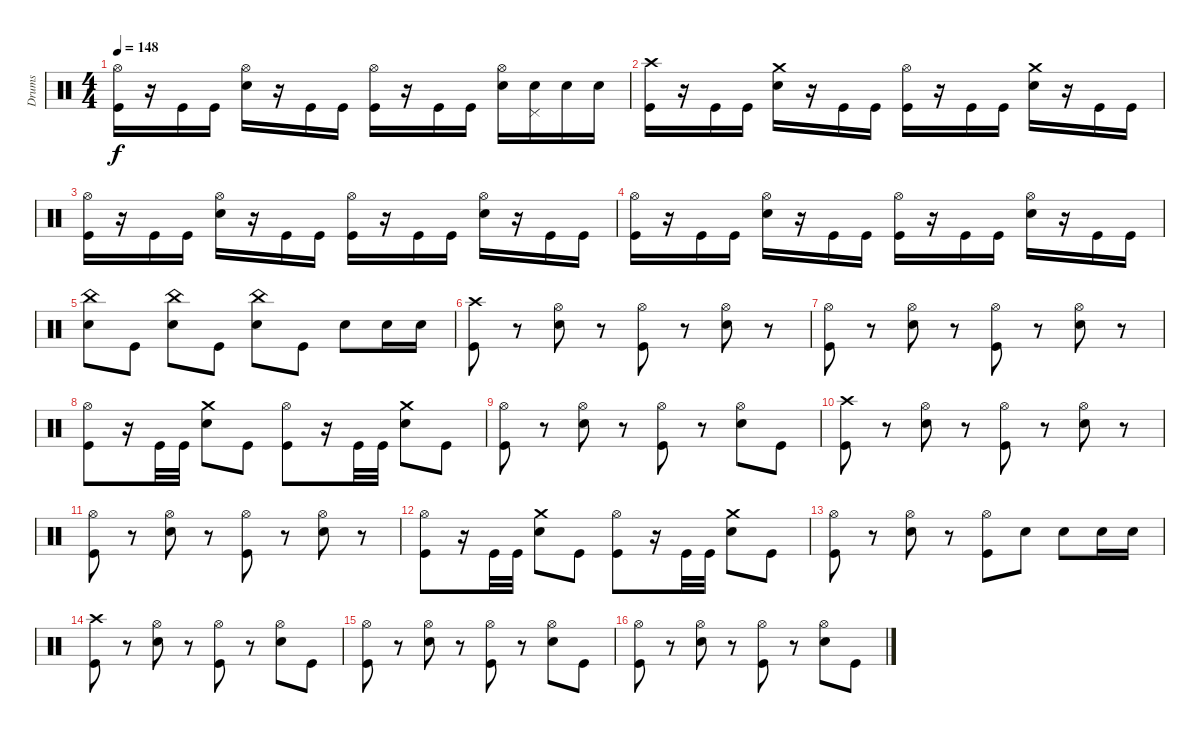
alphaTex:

\track ("Drums" "Drums") {instrument percussion}
\staff {score}
\articulation defaults
\ts (4 4)
\tempo 148
\clef neutral
\ks c
("Hi-Hat (open)" "Kick (hit)").16{dy f} r.16 "Kick (hit)".16 "Kick (hit)".16 ("Hi-Hat (open)" "Electric Snare (hit)").16 r.16 "Kick (hit)".16 "Kick (hit)".16 ("Hi-Hat (open)" "Kick (hit)").16 r.16 "Kick (hit)".16 "Kick (hit)".16 ("Hi-Hat (open)" "Electric Snare (hit)").16 ("Pedal Hi-Hat (hit)" "Electric Snare (hit)").16 "Electric Snare (hit)".16 "Electric Snare (hit)".16 |
("Crash high (hit)" "Kick (hit)").16 r.16 "Kick (hit)".16 "Kick (hit)".16 ("Crash medium (hit)" "Electric Snare (hit)").16 r.16 "Kick (hit)".16 "Kick (hit)".16 ("Hi-Hat (open)" "Kick (hit)").16 r.16 "Kick (hit)".16 "Kick (hit)".16 ("Crash medium (hit)" "Electric Snare (hit)").16 r.16 "Kick (hit)".16 "Kick (hit)".16 |
("Hi-Hat (open)" "Kick (hit)").16 r.16 "Kick (hit)".16 "Kick (hit)".16 ("Hi-Hat (open)" "Electric Snare (hit)").16 r.16 "Kick (hit)".16 "Kick (hit)".16 ("Hi-Hat (open)" "Kick (hit)").16 r.16 "Kick (hit)".16 "Kick (hit)".16 ("Hi-Hat (open)" "Electric Snare (hit)").16 r.16 "Kick (hit)".16 "Kick (hit)".16 |
("Hi-Hat (open)" "Kick (hit)").16 r.16 "Kick (hit)".16 "Kick (hit)".16 ("Hi-Hat (open)" "Electric Snare (hit)").16 r.16 "Kick (hit)".16 "Kick (hit)".16 ("Hi-Hat (open)" "Kick (hit)").16 r.16 "Kick (hit)".16 "Kick (hit)".16 ("Hi-Hat (open)" "Electric Snare (hit)").16 r.16 "Kick (hit)".16 "Kick (hit)".16 |
("China (hit)" "Electric Snare (hit)").8 "Kick (hit)".8 ("China (hit)" "Electric Snare (hit)").8 "Kick (hit)".8 ("China (hit)" "Electric Snare (hit)").8 "Kick (hit)".8 "Electric Snare (hit)".8 "Electric Snare (hit)".16 "Electric Snare (hit)".16 |
("Crash high (hit)" "Kick (hit)").8 r.8 ("Hi-Hat (open)" "Electric Snare (hit)").8 r.8 ("Hi-Hat (open)" "Kick (hit)").8 r.8 ("Hi-Hat (open)" "Electric Snare (hit)").8 r.8 |
("Hi-Hat (open)" "Kick (hit)").8 r.8 ("Hi-Hat (open)" "Electric Snare (hit)").8 r.8 ("Hi-Hat (open)" "Kick (hit)").8 r.8 ("Hi-Hat (open)" "Electric Snare (hit)").8 r.8 |
("Hi-Hat (open)" "Kick (hit)").8 r.16 "Kick (hit)".32 "Kick (hit)".32 ("Crash medium (hit)" "Electric Snare (hit)").8 "Kick (hit)".8 ("Hi-Hat (open)" "Kick (hit)").8 r.16 "Kick (hit)".32 "Kick (hit)".32 ("Crash medium (hit)" "Electric Snare (hit)").8 "Kick (hit)".8 |
("Hi-Hat (open)" "Kick (hit)").8 r.8 ("Hi-Hat (open)" "Electric Snare (hit)").8 r.8 ("Hi-Hat (open)" "Kick (hit)").8 r.8 ("Hi-Hat (open)" "Electric Snare (hit)").8 "Kick (hit)".8 |
("Crash high (hit)" "Kick (hit)").8 r.8 ("Hi-Hat (open)" "Electric Snare (hit)").8 r.8 ("Hi-Hat (open)" "Kick (hit)").8 r.8 ("Hi-Hat (open)" "Electric Snare (hit)").8 r.8 |
("Hi-Hat (open)" "Kick (hit)").8 r.8 ("Hi-Hat (open)" "Electric Snare (hit)").8 r.8 ("Hi-Hat (open)" "Kick (hit)").8 r.8 ("Hi-Hat (open)" "Electric Snare (hit)").8 r.8 |
("Hi-Hat (open)" "Kick (hit)").8 r.16 "Kick (hit)".32 "Kick (hit)".32 ("Crash medium (hit)" "Electric Snare (hit)").8 "Kick (hit)".8 ("Hi-Hat (open)" "Kick (hit)").8 r.16 "Kick (hit)".32 "Kick (hit)".32 ("Crash medium (hit)" "Electric Snare (hit)").8 "Kick (hit)".8 |
("Hi-Hat (open)" "Kick (hit)").8 r.8 ("Hi-Hat (open)" "Electric Snare (hit)").8 r.8 ("Hi-Hat (open)" "Kick (hit)").8 "Electric Snare (hit)".8 "Electric Snare (hit)".8 "Electric Snare (hit)".16 "Electric Snare (hit)".16 |
("Crash high (hit)" "Kick (hit)").8 r.8 ("Hi-Hat (open)" "Electric Snare (hit)").8 r.8 ("Hi-Hat (open)" "Kick (hit)").8 r.8 ("Hi-Hat (open)" "Electric Snare (hit)").8 "Kick (hit)".8 |
("Hi-Hat (open)" "Kick (hit)").8 r.8 ("Hi-Hat (open)" "Electric Snare (hit)").8 r.8 ("Hi-Hat (open)" "Kick (hit)").8 r.8 ("Hi-Hat (open)" "Electric Snare (hit)").8 "Kick (hit)".8 |
("Hi-Hat (open)" "Kick (hit)").8 r.8 ("Hi-Hat (open)" "Electric Snare (hit)").8 r.8 ("Hi-Hat (open)" "Kick (hit)").8 r.8 ("Hi-Hat (open)" "Electric Snare (hit)").8 "Kick (hit)".8
